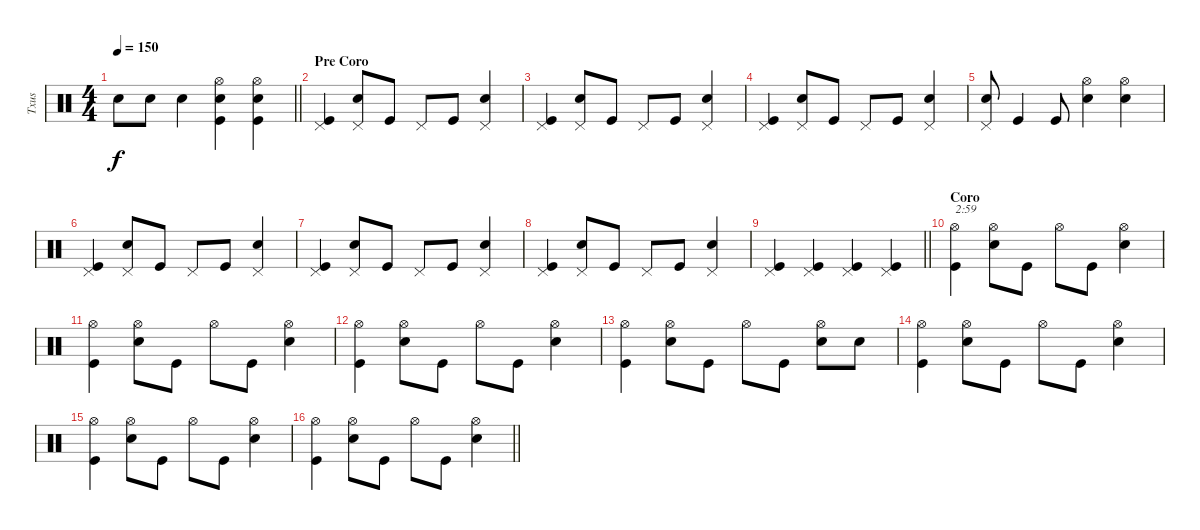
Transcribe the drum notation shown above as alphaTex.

\track ("Txus" "Txus") {instrument percussion}
\staff {score}
\articulation defaults
\ts (4 4)
\tempo 150
\clef neutral
\barLineRight lightlight
\ks c "Snare (hit) 2".8{dy f} "Snare (hit) 2".8 "Snare (hit) 2".4
("Kick (hit)" "Snare (hit) 2" "Hi-Hat (open)").4 ("Kick (hit)" "Snare (hit) 2" "Hi-Hat (open)").4 |
\section ("" "Pre Coro")
("Kick (hit)" "Pedal Hi-Hat (hit)").4 ("Snare (hit) 2" "Pedal Hi-Hat (hit)").8 "Kick (hit)".8 "Pedal Hi-Hat (hit)".8 "Kick (hit)".8 ("Snare (hit) 2" "Pedal Hi-Hat (hit)").4 |
("Kick (hit)" "Pedal Hi-Hat (hit)").4 ("Snare (hit) 2" "Pedal Hi-Hat (hit)").8 "Kick (hit)".8 "Pedal Hi-Hat (hit)".8 "Kick (hit)".8 ("Snare (hit) 2" "Pedal Hi-Hat (hit)").4 |
("Kick (hit)" "Pedal Hi-Hat (hit)").4 ("Snare (hit) 2" "Pedal Hi-Hat (hit)").8 "Kick (hit)".8 "Pedal Hi-Hat (hit)".8 "Kick (hit)".8 ("Snare (hit) 2" "Pedal Hi-Hat (hit)").4 |
("Snare (hit) 2" "Pedal Hi-Hat (hit)").8 "Kick (hit)".4 "Kick (hit)".8 ("Snare (hit) 2" "Hi-Hat (open)").4 ("Snare (hit) 2" "Hi-Hat (open)").4 |
("Kick (hit)" "Pedal Hi-Hat (hit)").4 ("Snare (hit) 2" "Pedal Hi-Hat (hit)").8 "Kick (hit)".8 "Pedal Hi-Hat (hit)".8 "Kick (hit)".8 ("Snare (hit) 2" "Pedal Hi-Hat (hit)").4 |
("Kick (hit)" "Pedal Hi-Hat (hit)").4 ("Snare (hit) 2" "Pedal Hi-Hat (hit)").8 "Kick (hit)".8 "Pedal Hi-Hat (hit)".8 "Kick (hit)".8 ("Snare (hit) 2" "Pedal Hi-Hat (hit)").4 |
("Kick (hit)" "Pedal Hi-Hat (hit)").4 ("Snare (hit) 2" "Pedal Hi-Hat (hit)").8 "Kick (hit)".8 "Pedal Hi-Hat (hit)".8 "Kick (hit)".8 ("Snare (hit) 2" "Pedal Hi-Hat (hit)").4 |
\barLineRight lightlight
("Kick (hit)" "Pedal Hi-Hat (hit)").4 ("Kick (hit)" "Pedal Hi-Hat (hit)").4 ("Kick (hit)" "Pedal Hi-Hat (hit)").4 ("Kick (hit)" "Pedal Hi-Hat (hit)").4 |
\section ("" "Coro")
("Kick (hit)" "Hi-Hat (open)").4{txt "2:59"} ("Snare (hit) 2" "Hi-Hat (open)").8 "Kick (hit)".8 "Hi-Hat (open)".8 "Kick (hit)".8 ("Snare (hit) 2" "Hi-Hat (open)").4 |
("Kick (hit)" "Hi-Hat (open)").4 ("Snare (hit) 2" "Hi-Hat (open)").8 "Kick (hit)".8 "Hi-Hat (open)".8 "Kick (hit)".8 ("Snare (hit) 2" "Hi-Hat (open)").4 |
("Kick (hit)" "Hi-Hat (open)").4 ("Snare (hit) 2" "Hi-Hat (open)").8 "Kick (hit)".8 "Hi-Hat (open)".8 "Kick (hit)".8 ("Snare (hit) 2" "Hi-Hat (open)").4 |
("Kick (hit)" "Hi-Hat (open)").4 ("Snare (hit) 2" "Hi-Hat (open)").8 "Kick (hit)".8 "Hi-Hat (open)".8 "Kick (hit)".8 ("Snare (hit) 2" "Hi-Hat (open)").8 "Snare (hit) 2".8 |
("Kick (hit)" "Hi-Hat (open)").4 ("Snare (hit) 2" "Hi-Hat (open)").8 "Kick (hit)".8 "Hi-Hat (open)".8 "Kick (hit)".8 ("Snare (hit) 2" "Hi-Hat (open)").4 |
("Kick (hit)" "Hi-Hat (open)").4 ("Snare (hit) 2" "Hi-Hat (open)").8 "Kick (hit)".8 "Hi-Hat (open)".8 "Kick (hit)".8 ("Snare (hit) 2" "Hi-Hat (open)").4 |
\barLineRight lightlight
("Kick (hit)" "Hi-Hat (open)").4 ("Snare (hit) 2" "Hi-Hat (open)").8 "Kick (hit)".8 "Hi-Hat (open)".8 "Kick (hit)".8 ("Snare (hit) 2" "Hi-Hat (open)").4
